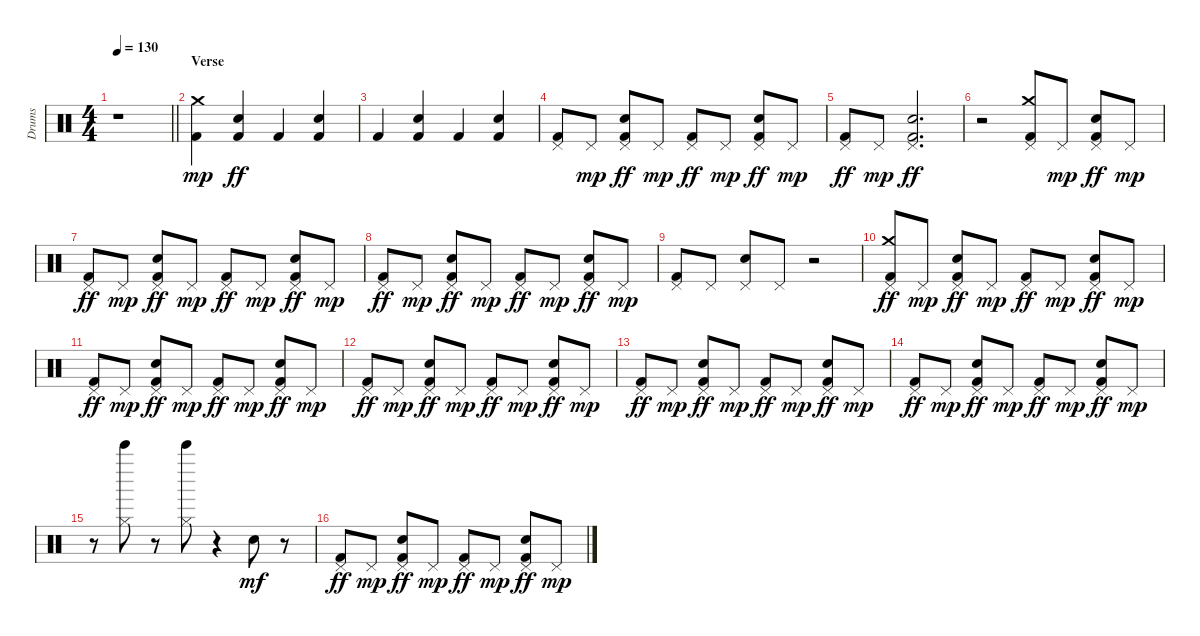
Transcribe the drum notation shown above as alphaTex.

\track ("Drums" "Drums") {instrument percussion}
\staff {score}
\articulation defaults
\ts (4 4)
\tempo 130
\clef neutral
\barLineRight lightlight
\ks c
r.1{dy mp} |
\section ("" "Verse")
("Kick (hit) 2" "Crash medium (hit)").4 ("Hand Clap (hit)" "Kick (hit) 2").4{dy ff} "Kick (hit) 2".4 ("Hand Clap (hit)" "Kick (hit) 2").4 |
"Kick (hit) 2".4 ("Hand Clap (hit)" "Kick (hit) 2").4 "Kick (hit) 2".4 ("Hand Clap (hit)" "Kick (hit) 2").4 |
("Pedal Hi-Hat (hit)" "Kick (hit) 2").8 "Pedal Hi-Hat (hit)".8{dy mp} ("Hand Clap (hit)" "Pedal Hi-Hat (hit)" "Kick (hit) 2").8{dy ff} "Pedal Hi-Hat (hit)".8{dy mp} ("Pedal Hi-Hat (hit)" "Kick (hit) 2").8{dy ff} "Pedal Hi-Hat (hit)".8{dy mp} ("Hand Clap (hit)" "Pedal Hi-Hat (hit)" "Kick (hit) 2").8{dy ff} "Pedal Hi-Hat (hit)".8{dy mp} |
("Pedal Hi-Hat (hit)" "Kick (hit) 2").8{dy ff} "Pedal Hi-Hat (hit)".8{dy mp} ("Hand Clap (hit)" "Pedal Hi-Hat (hit)" "Kick (hit) 2").2{d dy ff} |
r.2 ("Crash medium (hit)" "Pedal Hi-Hat (hit)" "Kick (hit) 2").8 "Pedal Hi-Hat (hit)".8{dy mp} ("Hand Clap (hit)" "Pedal Hi-Hat (hit)" "Kick (hit) 2").8{dy ff} "Pedal Hi-Hat (hit)".8{dy mp} |
("Pedal Hi-Hat (hit)" "Kick (hit) 2").8{dy ff} "Pedal Hi-Hat (hit)".8{dy mp} ("Hand Clap (hit)" "Pedal Hi-Hat (hit)" "Kick (hit) 2").8{dy ff} "Pedal Hi-Hat (hit)".8{dy mp} ("Pedal Hi-Hat (hit)" "Kick (hit) 2").8{dy ff} "Pedal Hi-Hat (hit)".8{dy mp} ("Hand Clap (hit)" "Pedal Hi-Hat (hit)" "Kick (hit) 2").8{dy ff} "Pedal Hi-Hat (hit)".8{dy mp} |
("Pedal Hi-Hat (hit)" "Kick (hit) 2").8{dy ff} "Pedal Hi-Hat (hit)".8{dy mp} ("Hand Clap (hit)" "Pedal Hi-Hat (hit)" "Kick (hit) 2").8{dy ff} "Pedal Hi-Hat (hit)".8{dy mp} ("Pedal Hi-Hat (hit)" "Kick (hit) 2").8{dy ff} "Pedal Hi-Hat (hit)".8{dy mp} ("Hand Clap (hit)" "Pedal Hi-Hat (hit)" "Kick (hit) 2").8{dy ff} "Pedal Hi-Hat (hit)".8{dy mp} |
("Kick (hit) 2" "Pedal Hi-Hat (hit)").8 "Pedal Hi-Hat (hit)".8 ("Hand Clap (hit)" "Pedal Hi-Hat (hit)").8 "Pedal Hi-Hat (hit)".8 r.2 |
("Crash medium (hit)" "Pedal Hi-Hat (hit)" "Kick (hit) 2").8{dy ff} "Pedal Hi-Hat (hit)".8{dy mp} ("Hand Clap (hit)" "Pedal Hi-Hat (hit)" "Kick (hit) 2").8{dy ff} "Pedal Hi-Hat (hit)".8{dy mp} ("Pedal Hi-Hat (hit)" "Kick (hit) 2").8{dy ff} "Pedal Hi-Hat (hit)".8{dy mp} ("Hand Clap (hit)" "Pedal Hi-Hat (hit)" "Kick (hit) 2").8{dy ff} "Pedal Hi-Hat (hit)".8{dy mp} |
("Pedal Hi-Hat (hit)" "Kick (hit) 2").8{dy ff} "Pedal Hi-Hat (hit)".8{dy mp} ("Hand Clap (hit)" "Pedal Hi-Hat (hit)" "Kick (hit) 2").8{dy ff} "Pedal Hi-Hat (hit)".8{dy mp} ("Pedal Hi-Hat (hit)" "Kick (hit) 2").8{dy ff} "Pedal Hi-Hat (hit)".8{dy mp} ("Hand Clap (hit)" "Pedal Hi-Hat (hit)" "Kick (hit) 2").8{dy ff} "Pedal Hi-Hat (hit)".8{dy mp} |
("Pedal Hi-Hat (hit)" "Kick (hit) 2").8{dy ff} "Pedal Hi-Hat (hit)".8{dy mp} ("Hand Clap (hit)" "Pedal Hi-Hat (hit)" "Kick (hit) 2").8{dy ff} "Pedal Hi-Hat (hit)".8{dy mp} ("Pedal Hi-Hat (hit)" "Kick (hit) 2").8{dy ff} "Pedal Hi-Hat (hit)".8{dy mp} ("Hand Clap (hit)" "Pedal Hi-Hat (hit)" "Kick (hit) 2").8{dy ff} "Pedal Hi-Hat (hit)".8{dy mp} |
("Pedal Hi-Hat (hit)" "Kick (hit) 2").8{dy ff} "Pedal Hi-Hat (hit)".8{dy mp} ("Hand Clap (hit)" "Pedal Hi-Hat (hit)" "Kick (hit) 2").8{dy ff} "Pedal Hi-Hat (hit)".8{dy mp} ("Pedal Hi-Hat (hit)" "Kick (hit) 2").8{dy ff} "Pedal Hi-Hat (hit)".8{dy mp} ("Hand Clap (hit)" "Pedal Hi-Hat (hit)" "Kick (hit) 2").8{dy ff} "Pedal Hi-Hat (hit)".8{dy mp} |
("Pedal Hi-Hat (hit)" "Kick (hit) 2").8{dy ff} "Pedal Hi-Hat (hit)".8{dy mp} ("Hand Clap (hit)" "Pedal Hi-Hat (hit)" "Kick (hit) 2").8{dy ff} "Pedal Hi-Hat (hit)".8{dy mp} ("Pedal Hi-Hat (hit)" "Kick (hit) 2").8{dy ff} "Pedal Hi-Hat (hit)".8{dy mp} ("Hand Clap (hit)" "Pedal Hi-Hat (hit)" "Kick (hit) 2").8{dy ff} "Pedal Hi-Hat (hit)".8{dy mp} |
r.8 ("Bell Tree (hit)" "Hi-Hat (closed)").8 r.8 ("Bell Tree (hit)" "Hi-Hat (closed)").8 r.4 "Hand Clap (hit)".8{dy mf} r.8 |
("Pedal Hi-Hat (hit)" "Kick (hit) 2").8{dy ff} "Pedal Hi-Hat (hit)".8{dy mp} ("Hand Clap (hit)" "Pedal Hi-Hat (hit)" "Kick (hit) 2").8{dy ff} "Pedal Hi-Hat (hit)".8{dy mp} ("Pedal Hi-Hat (hit)" "Kick (hit) 2").8{dy ff} "Pedal Hi-Hat (hit)".8{dy mp} ("Hand Clap (hit)" "Pedal Hi-Hat (hit)" "Kick (hit) 2").8{dy ff} "Pedal Hi-Hat (hit)".8{dy mp}
